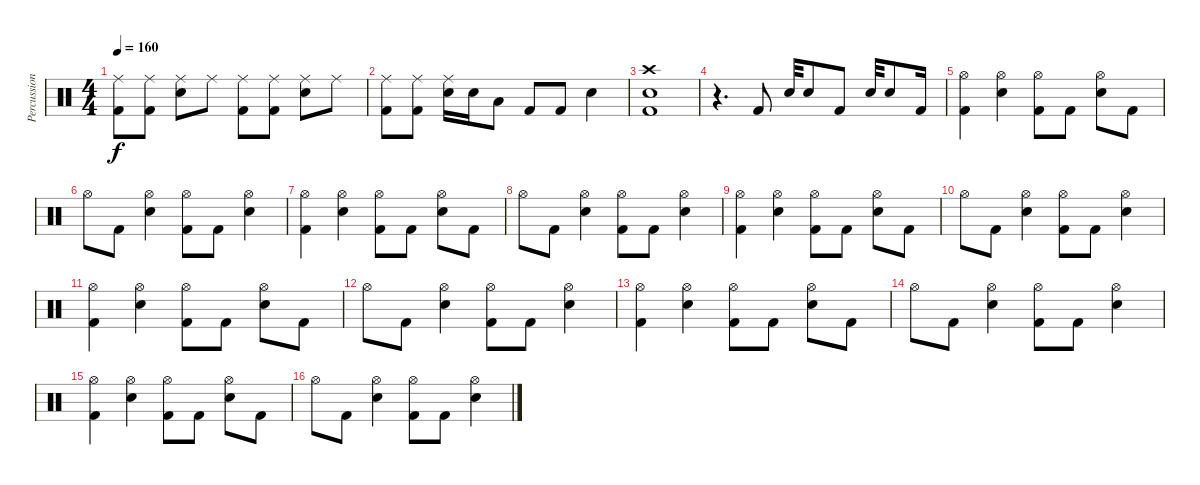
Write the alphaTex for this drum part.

\track ("Percussion" "Percussion") {instrument percussion}
\staff {score}
\articulation defaults
\ts (4 4)
\tempo 160
\clef neutral
\ks c
("Ride (middle)" "Kick (hit) 2").8{dy f} ("Ride (middle)" "Kick (hit) 2").8 ("Ride (middle)" "Snare (hit) 2").8 "Ride (middle)".8 ("Ride (middle)" "Kick (hit) 2").8 ("Ride (middle)" "Kick (hit) 2").8 ("Ride (middle)" "Snare (hit) 2").8 "Ride (middle)".8 |
("Ride (middle)" "Kick (hit) 2").8 ("Ride (middle)" "Kick (hit) 2").8 ("Ride (middle)" "Snare (hit) 2").16 "Snare (hit) 2".16 "Low Tom (hit)".8 "Kick (hit) 2".8 "Kick (hit) 2".8 "Snare (hit) 2".4 |
("Crash high (hit)" "Snare (hit) 2" "Kick (hit) 2").1 |
r.4{d} "Kick (hit) 2".8 "Snare (hit) 2".32 "Snare (hit) 2".8 "Kick (hit) 2".8 "Snare (hit) 2".32 "Snare (hit) 2".8 "Kick (hit) 2".16 |
("Hi-Hat (open)" "Kick (hit) 2").4 ("Hi-Hat (open)" "Snare (hit) 2").4 ("Hi-Hat (open)" "Kick (hit) 2").8 "Kick (hit) 2".8 ("Hi-Hat (open)" "Snare (hit) 2").8 "Kick (hit) 2".8 |
"Hi-Hat (open)".8 "Kick (hit) 2".8 ("Hi-Hat (open)" "Snare (hit) 2").4 ("Hi-Hat (open)" "Kick (hit) 2").8 "Kick (hit) 2".8 ("Hi-Hat (open)" "Snare (hit) 2").4 |
("Hi-Hat (open)" "Kick (hit) 2").4 ("Hi-Hat (open)" "Snare (hit) 2").4 ("Hi-Hat (open)" "Kick (hit) 2").8 "Kick (hit) 2".8 ("Hi-Hat (open)" "Snare (hit) 2").8 "Kick (hit) 2".8 |
"Hi-Hat (open)".8 "Kick (hit) 2".8 ("Hi-Hat (open)" "Snare (hit) 2").4 ("Hi-Hat (open)" "Kick (hit) 2").8 "Kick (hit) 2".8 ("Hi-Hat (open)" "Snare (hit) 2").4 |
("Hi-Hat (open)" "Kick (hit) 2").4 ("Hi-Hat (open)" "Snare (hit) 2").4 ("Hi-Hat (open)" "Kick (hit) 2").8 "Kick (hit) 2".8 ("Hi-Hat (open)" "Snare (hit) 2").8 "Kick (hit) 2".8 |
"Hi-Hat (open)".8 "Kick (hit) 2".8 ("Hi-Hat (open)" "Snare (hit) 2").4 ("Hi-Hat (open)" "Kick (hit) 2").8 "Kick (hit) 2".8 ("Hi-Hat (open)" "Snare (hit) 2").4 |
("Hi-Hat (open)" "Kick (hit) 2").4 ("Hi-Hat (open)" "Snare (hit) 2").4 ("Hi-Hat (open)" "Kick (hit) 2").8 "Kick (hit) 2".8 ("Hi-Hat (open)" "Snare (hit) 2").8 "Kick (hit) 2".8 |
"Hi-Hat (open)".8 "Kick (hit) 2".8 ("Hi-Hat (open)" "Snare (hit) 2").4 ("Hi-Hat (open)" "Kick (hit) 2").8 "Kick (hit) 2".8 ("Hi-Hat (open)" "Snare (hit) 2").4 |
("Hi-Hat (open)" "Kick (hit) 2").4 ("Hi-Hat (open)" "Snare (hit) 2").4 ("Hi-Hat (open)" "Kick (hit) 2").8 "Kick (hit) 2".8 ("Hi-Hat (open)" "Snare (hit) 2").8 "Kick (hit) 2".8 |
"Hi-Hat (open)".8 "Kick (hit) 2".8 ("Hi-Hat (open)" "Snare (hit) 2").4 ("Hi-Hat (open)" "Kick (hit) 2").8 "Kick (hit) 2".8 ("Hi-Hat (open)" "Snare (hit) 2").4 |
("Hi-Hat (open)" "Kick (hit) 2").4 ("Hi-Hat (open)" "Snare (hit) 2").4 ("Hi-Hat (open)" "Kick (hit) 2").8 "Kick (hit) 2".8 ("Hi-Hat (open)" "Snare (hit) 2").8 "Kick (hit) 2".8 |
"Hi-Hat (open)".8 "Kick (hit) 2".8 ("Hi-Hat (open)" "Snare (hit) 2").4 ("Hi-Hat (open)" "Kick (hit) 2").8 "Kick (hit) 2".8 ("Hi-Hat (open)" "Snare (hit) 2").4
